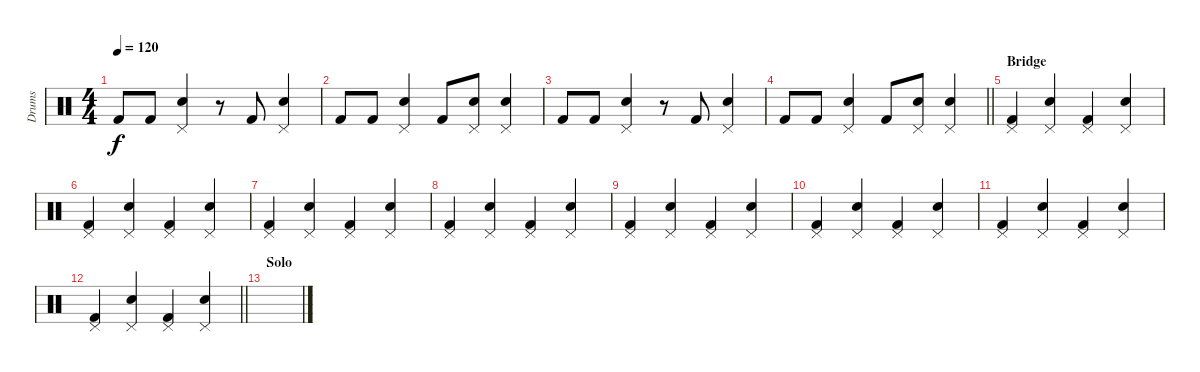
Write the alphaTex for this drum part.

\track ("Drums" "Drums") {instrument percussion}
\staff {score}
\articulation defaults
\ts (4 4)
\tempo 120
\clef neutral
\ks c "Kick (hit) 2".8{dy f} "Kick (hit) 2".8
("Snare (hit) 2" "Pedal Hi-Hat (hit)").4 r.8 "Kick (hit) 2".8 ("Snare (hit) 2" "Pedal Hi-Hat (hit)").4 |
"Kick (hit) 2".8 "Kick (hit) 2".8 ("Snare (hit) 2" "Pedal Hi-Hat (hit)").4 "Kick (hit) 2".8 ("Snare (hit) 2" "Pedal Hi-Hat (hit)").8 ("Snare (hit) 2" "Pedal Hi-Hat (hit)").4 |
"Kick (hit) 2".8 "Kick (hit) 2".8 ("Snare (hit) 2" "Pedal Hi-Hat (hit)").4 r.8 "Kick (hit) 2".8 ("Snare (hit) 2" "Pedal Hi-Hat (hit)").4 |
\barLineRight lightlight "Kick (hit) 2".8 "Kick (hit) 2".8
("Snare (hit) 2" "Pedal Hi-Hat (hit)").4 "Kick (hit) 2".8 ("Snare (hit) 2" "Pedal Hi-Hat (hit)").8 ("Snare (hit) 2" "Pedal Hi-Hat (hit)").4 |
\section ("" "Bridge")
("Pedal Hi-Hat (hit)" "Kick (hit) 2").4 ("Snare (hit) 2" "Pedal Hi-Hat (hit)").4 ("Pedal Hi-Hat (hit)" "Kick (hit) 2").4 ("Snare (hit) 2" "Pedal Hi-Hat (hit)").4 |
("Pedal Hi-Hat (hit)" "Kick (hit) 2").4 ("Snare (hit) 2" "Pedal Hi-Hat (hit)").4 ("Pedal Hi-Hat (hit)" "Kick (hit) 2").4 ("Snare (hit) 2" "Pedal Hi-Hat (hit)").4 |
("Pedal Hi-Hat (hit)" "Kick (hit) 2").4 ("Snare (hit) 2" "Pedal Hi-Hat (hit)").4 ("Pedal Hi-Hat (hit)" "Kick (hit) 2").4 ("Snare (hit) 2" "Pedal Hi-Hat (hit)").4 |
("Pedal Hi-Hat (hit)" "Kick (hit) 2").4 ("Snare (hit) 2" "Pedal Hi-Hat (hit)").4 ("Pedal Hi-Hat (hit)" "Kick (hit) 2").4 ("Snare (hit) 2" "Pedal Hi-Hat (hit)").4 |
("Pedal Hi-Hat (hit)" "Kick (hit) 2").4 ("Snare (hit) 2" "Pedal Hi-Hat (hit)").4 ("Pedal Hi-Hat (hit)" "Kick (hit) 2").4 ("Snare (hit) 2" "Pedal Hi-Hat (hit)").4 |
("Pedal Hi-Hat (hit)" "Kick (hit) 2").4 ("Snare (hit) 2" "Pedal Hi-Hat (hit)").4 ("Pedal Hi-Hat (hit)" "Kick (hit) 2").4 ("Snare (hit) 2" "Pedal Hi-Hat (hit)").4 |
("Pedal Hi-Hat (hit)" "Kick (hit) 2").4 ("Snare (hit) 2" "Pedal Hi-Hat (hit)").4 ("Pedal Hi-Hat (hit)" "Kick (hit) 2").4 ("Snare (hit) 2" "Pedal Hi-Hat (hit)").4 |
\barLineRight lightlight
("Pedal Hi-Hat (hit)" "Kick (hit) 2").4 ("Snare (hit) 2" "Pedal Hi-Hat (hit)").4 ("Pedal Hi-Hat (hit)" "Kick (hit) 2").4 ("Snare (hit) 2" "Pedal Hi-Hat (hit)").4 |
\section ("" "Solo")
